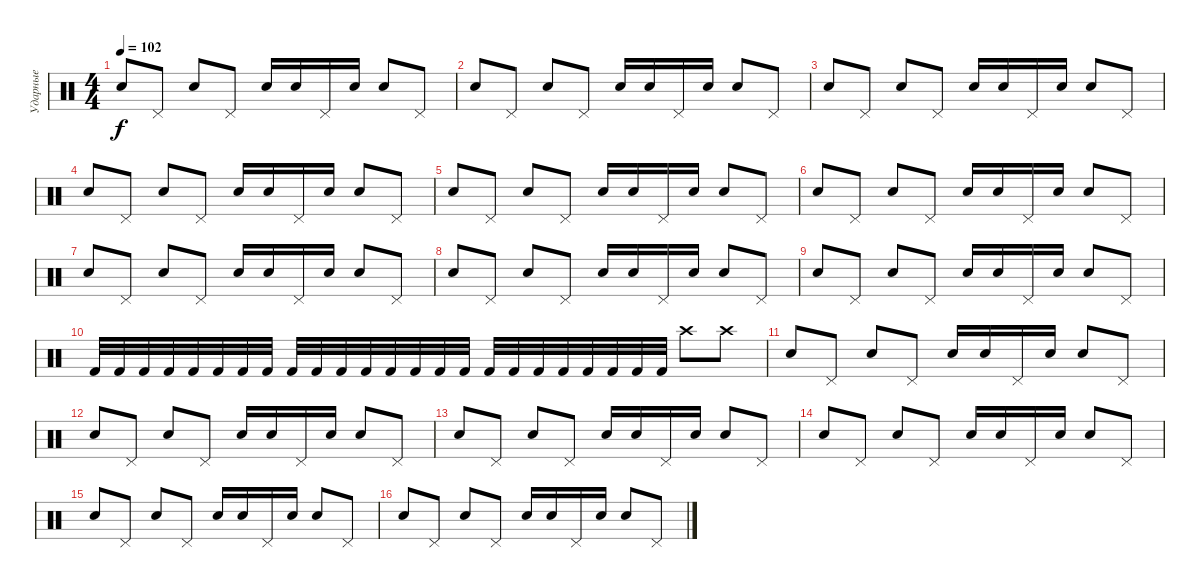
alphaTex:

\track ("Ударные" "Ударные") {instrument percussion}
\staff {score}
\articulation defaults
\ts (4 4)
\tempo 102
\clef neutral
\ks c "Snare (hit) 2".8{dy f} "Pedal Hi-Hat (hit)".8 "Snare (hit) 2".8 "Pedal Hi-Hat (hit)".8 "Snare (hit) 2".16 "Snare (hit) 2".16 "Pedal Hi-Hat (hit)".16 "Snare (hit) 2".16 "Snare (hit) 2".8 "Pedal Hi-Hat (hit)".8
|
"Snare (hit) 2".8 "Pedal Hi-Hat (hit)".8 "Snare (hit) 2".8 "Pedal Hi-Hat (hit)".8 "Snare (hit) 2".16 "Snare (hit) 2".16 "Pedal Hi-Hat (hit)".16 "Snare (hit) 2".16 "Snare (hit) 2".8 "Pedal Hi-Hat (hit)".8 |
"Snare (hit) 2".8 "Pedal Hi-Hat (hit)".8 "Snare (hit) 2".8 "Pedal Hi-Hat (hit)".8 "Snare (hit) 2".16 "Snare (hit) 2".16 "Pedal Hi-Hat (hit)".16 "Snare (hit) 2".16 "Snare (hit) 2".8 "Pedal Hi-Hat (hit)".8 |
"Snare (hit) 2".8 "Pedal Hi-Hat (hit)".8 "Snare (hit) 2".8 "Pedal Hi-Hat (hit)".8 "Snare (hit) 2".16 "Snare (hit) 2".16 "Pedal Hi-Hat (hit)".16 "Snare (hit) 2".16 "Snare (hit) 2".8 "Pedal Hi-Hat (hit)".8 |
"Snare (hit) 2".8 "Pedal Hi-Hat (hit)".8 "Snare (hit) 2".8 "Pedal Hi-Hat (hit)".8 "Snare (hit) 2".16 "Snare (hit) 2".16 "Pedal Hi-Hat (hit)".16 "Snare (hit) 2".16 "Snare (hit) 2".8 "Pedal Hi-Hat (hit)".8 |
"Snare (hit) 2".8 "Pedal Hi-Hat (hit)".8 "Snare (hit) 2".8 "Pedal Hi-Hat (hit)".8 "Snare (hit) 2".16 "Snare (hit) 2".16 "Pedal Hi-Hat (hit)".16 "Snare (hit) 2".16 "Snare (hit) 2".8 "Pedal Hi-Hat (hit)".8 |
"Snare (hit) 2".8 "Pedal Hi-Hat (hit)".8 "Snare (hit) 2".8 "Pedal Hi-Hat (hit)".8 "Snare (hit) 2".16 "Snare (hit) 2".16 "Pedal Hi-Hat (hit)".16 "Snare (hit) 2".16 "Snare (hit) 2".8 "Pedal Hi-Hat (hit)".8 |
"Snare (hit) 2".8 "Pedal Hi-Hat (hit)".8 "Snare (hit) 2".8 "Pedal Hi-Hat (hit)".8 "Snare (hit) 2".16 "Snare (hit) 2".16 "Pedal Hi-Hat (hit)".16 "Snare (hit) 2".16 "Snare (hit) 2".8 "Pedal Hi-Hat (hit)".8 |
"Snare (hit) 2".8 "Pedal Hi-Hat (hit)".8 "Snare (hit) 2".8 "Pedal Hi-Hat (hit)".8 "Snare (hit) 2".16 "Snare (hit) 2".16 "Pedal Hi-Hat (hit)".16 "Snare (hit) 2".16 "Snare (hit) 2".8 "Pedal Hi-Hat (hit)".8 |
"Kick (hit) 2".32 "Kick (hit) 2".32 "Kick (hit) 2".32 "Kick (hit) 2".32 "Kick (hit) 2".32 "Kick (hit) 2".32 "Kick (hit) 2".32 "Kick (hit) 2".32 "Kick (hit) 2".32 "Kick (hit) 2".32 "Kick (hit) 2".32 "Kick (hit) 2".32 "Kick (hit) 2".32 "Kick (hit) 2".32 "Kick (hit) 2".32 "Kick (hit) 2".32 "Kick (hit) 2".32 "Kick (hit) 2".32 "Kick (hit) 2".32 "Kick (hit) 2".32 "Kick (hit) 2".32 "Kick (hit) 2".32 "Kick (hit) 2".32 "Kick (hit) 2".32 "Crash high (hit)".8 "Crash high (hit)".8 |
"Snare (hit) 2".8 "Pedal Hi-Hat (hit)".8 "Snare (hit) 2".8 "Pedal Hi-Hat (hit)".8 "Snare (hit) 2".16 "Snare (hit) 2".16 "Pedal Hi-Hat (hit)".16 "Snare (hit) 2".16 "Snare (hit) 2".8 "Pedal Hi-Hat (hit)".8 |
"Snare (hit) 2".8 "Pedal Hi-Hat (hit)".8 "Snare (hit) 2".8 "Pedal Hi-Hat (hit)".8 "Snare (hit) 2".16 "Snare (hit) 2".16 "Pedal Hi-Hat (hit)".16 "Snare (hit) 2".16 "Snare (hit) 2".8 "Pedal Hi-Hat (hit)".8 |
"Snare (hit) 2".8 "Pedal Hi-Hat (hit)".8 "Snare (hit) 2".8 "Pedal Hi-Hat (hit)".8 "Snare (hit) 2".16 "Snare (hit) 2".16 "Pedal Hi-Hat (hit)".16 "Snare (hit) 2".16 "Snare (hit) 2".8 "Pedal Hi-Hat (hit)".8 |
"Snare (hit) 2".8 "Pedal Hi-Hat (hit)".8 "Snare (hit) 2".8 "Pedal Hi-Hat (hit)".8 "Snare (hit) 2".16 "Snare (hit) 2".16 "Pedal Hi-Hat (hit)".16 "Snare (hit) 2".16 "Snare (hit) 2".8 "Pedal Hi-Hat (hit)".8 |
"Snare (hit) 2".8 "Pedal Hi-Hat (hit)".8 "Snare (hit) 2".8 "Pedal Hi-Hat (hit)".8 "Snare (hit) 2".16 "Snare (hit) 2".16 "Pedal Hi-Hat (hit)".16 "Snare (hit) 2".16 "Snare (hit) 2".8 "Pedal Hi-Hat (hit)".8 |
"Snare (hit) 2".8 "Pedal Hi-Hat (hit)".8 "Snare (hit) 2".8 "Pedal Hi-Hat (hit)".8 "Snare (hit) 2".16 "Snare (hit) 2".16 "Pedal Hi-Hat (hit)".16 "Snare (hit) 2".16 "Snare (hit) 2".8 "Pedal Hi-Hat (hit)".8
